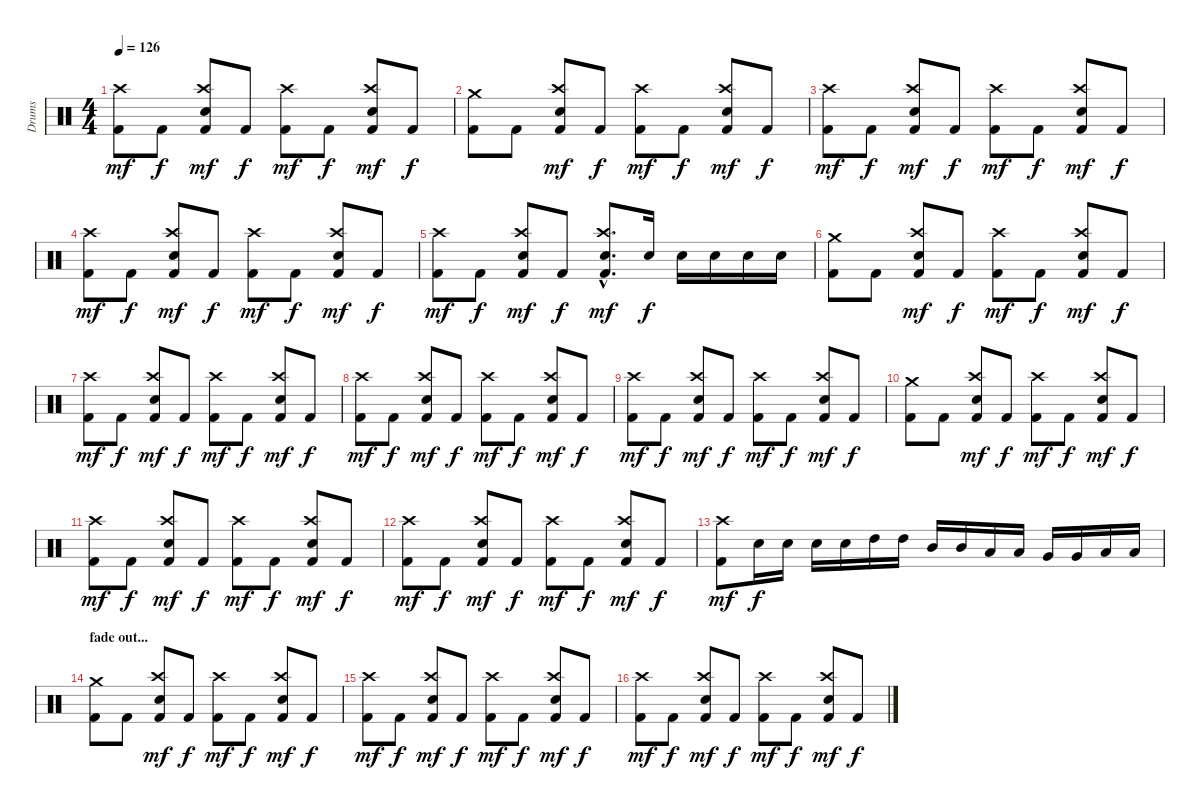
\track ("Drums" "Drums") {instrument percussion}
\staff {score}
\articulation defaults
\ts (4 4)
\tempo 126
\clef neutral
\ks c
("Kick (hit) 2" "Crash high (hit)").8{dy mf} "Kick (hit) 2".8{dy f} ("Kick (hit) 2" "Electric Snare (hit)" "Crash high (hit)").8{dy mf} "Kick (hit) 2".8{dy f} ("Kick (hit) 2" "Crash high (hit)").8{dy mf} "Kick (hit) 2".8{dy f} ("Kick (hit) 2" "Electric Snare (hit)" "Crash high (hit)").8{dy mf} "Kick (hit) 2".8{dy f} |
("Kick (hit) 2" "Crash medium (hit)").8 "Kick (hit) 2".8 ("Kick (hit) 2" "Electric Snare (hit)" "Crash high (hit)").8{dy mf} "Kick (hit) 2".8{dy f} ("Kick (hit) 2" "Crash high (hit)").8{dy mf} "Kick (hit) 2".8{dy f} ("Kick (hit) 2" "Electric Snare (hit)" "Crash high (hit)").8{dy mf} "Kick (hit) 2".8{dy f} |
("Kick (hit) 2" "Crash high (hit)").8{dy mf} "Kick (hit) 2".8{dy f} ("Kick (hit) 2" "Electric Snare (hit)" "Crash high (hit)").8{dy mf} "Kick (hit) 2".8{dy f} ("Kick (hit) 2" "Crash high (hit)").8{dy mf} "Kick (hit) 2".8{dy f} ("Kick (hit) 2" "Electric Snare (hit)" "Crash high (hit)").8{dy mf} "Kick (hit) 2".8{dy f} |
("Kick (hit) 2" "Crash high (hit)").8{dy mf} "Kick (hit) 2".8{dy f} ("Kick (hit) 2" "Electric Snare (hit)" "Crash high (hit)").8{dy mf} "Kick (hit) 2".8{dy f} ("Kick (hit) 2" "Crash high (hit)").8{dy mf} "Kick (hit) 2".8{dy f} ("Kick (hit) 2" "Electric Snare (hit)" "Crash high (hit)").8{dy mf} "Kick (hit) 2".8{dy f} |
("Kick (hit) 2" "Crash high (hit)").8{dy mf} "Kick (hit) 2".8{dy f} ("Kick (hit) 2" "Electric Snare (hit)" "Crash high (hit)").8{dy mf} "Kick (hit) 2".8{dy f} ("Kick (hit) 2"{hac} "Electric Snare (hit)"{hac} "Crash high (hit)"{hac}).8{d dy mf} "Electric Snare (hit)".16{dy f} "Electric Snare (hit)".16 "Electric Snare (hit)".16 "Electric Snare (hit)".16 "Electric Snare (hit)".16 |
("Kick (hit) 2" "Crash medium (hit)").8 "Kick (hit) 2".8 ("Kick (hit) 2" "Electric Snare (hit)" "Crash high (hit)").8{dy mf} "Kick (hit) 2".8{dy f} ("Kick (hit) 2" "Crash high (hit)").8{dy mf} "Kick (hit) 2".8{dy f} ("Kick (hit) 2" "Electric Snare (hit)" "Crash high (hit)").8{dy mf} "Kick (hit) 2".8{dy f} |
("Kick (hit) 2" "Crash high (hit)").8{dy mf} "Kick (hit) 2".8{dy f} ("Kick (hit) 2" "Electric Snare (hit)" "Crash high (hit)").8{dy mf} "Kick (hit) 2".8{dy f} ("Kick (hit) 2" "Crash high (hit)").8{dy mf} "Kick (hit) 2".8{dy f} ("Kick (hit) 2" "Electric Snare (hit)" "Crash high (hit)").8{dy mf} "Kick (hit) 2".8{dy f} |
("Kick (hit) 2" "Crash high (hit)").8{dy mf} "Kick (hit) 2".8{dy f} ("Kick (hit) 2" "Electric Snare (hit)" "Crash high (hit)").8{dy mf} "Kick (hit) 2".8{dy f} ("Kick (hit) 2" "Crash high (hit)").8{dy mf} "Kick (hit) 2".8{dy f} ("Kick (hit) 2" "Electric Snare (hit)" "Crash high (hit)").8{dy mf} "Kick (hit) 2".8{dy f} |
("Kick (hit) 2" "Crash high (hit)").8{dy mf} "Kick (hit) 2".8{dy f} ("Kick (hit) 2" "Electric Snare (hit)" "Crash high (hit)").8{dy mf} "Kick (hit) 2".8{dy f} ("Kick (hit) 2" "Crash high (hit)").8{dy mf} "Kick (hit) 2".8{dy f} ("Kick (hit) 2" "Electric Snare (hit)" "Crash high (hit)").8{dy mf} "Kick (hit) 2".8{dy f} |
("Kick (hit) 2" "Crash medium (hit)").8 "Kick (hit) 2".8 ("Kick (hit) 2" "Electric Snare (hit)" "Crash high (hit)").8{dy mf} "Kick (hit) 2".8{dy f} ("Kick (hit) 2" "Crash high (hit)").8{dy mf} "Kick (hit) 2".8{dy f} ("Kick (hit) 2" "Electric Snare (hit)" "Crash high (hit)").8{dy mf} "Kick (hit) 2".8{dy f} |
("Kick (hit) 2" "Crash high (hit)").8{dy mf} "Kick (hit) 2".8{dy f} ("Kick (hit) 2" "Electric Snare (hit)" "Crash high (hit)").8{dy mf} "Kick (hit) 2".8{dy f} ("Kick (hit) 2" "Crash high (hit)").8{dy mf} "Kick (hit) 2".8{dy f} ("Kick (hit) 2" "Electric Snare (hit)" "Crash high (hit)").8{dy mf} "Kick (hit) 2".8{dy f} |
("Kick (hit) 2" "Crash high (hit)").8{dy mf} "Kick (hit) 2".8{dy f} ("Kick (hit) 2" "Electric Snare (hit)" "Crash high (hit)").8{dy mf} "Kick (hit) 2".8{dy f} ("Kick (hit) 2" "Crash high (hit)").8{dy mf} "Kick (hit) 2".8{dy f} ("Kick (hit) 2" "Electric Snare (hit)" "Crash high (hit)").8{dy mf} "Kick (hit) 2".8{dy f} |
("Kick (hit) 2" "Crash high (hit)").8{dy mf} "Electric Snare (hit)".16{dy f} "Electric Snare (hit)".16 "Electric Snare (hit)".16 "Electric Snare (hit)".16 "High Tom (hit)".16 "High Tom (hit)".16 "Mid Tom (hit)".16 "Mid Tom (hit)".16 "Low Tom (hit)".16 "Low Tom (hit)".16 "Very Low Tom (hit)".16 "Very Low Tom (hit)".16 "Low Floor Tom (hit)".16 "Low Floor Tom (hit)".16 |
\section ("" "fade out...")
("Kick (hit) 2" "Crash medium (hit)").8 "Kick (hit) 2".8 ("Kick (hit) 2" "Electric Snare (hit)" "Crash high (hit)").8{dy mf} "Kick (hit) 2".8{dy f} ("Kick (hit) 2" "Crash high (hit)").8{dy mf} "Kick (hit) 2".8{dy f} ("Kick (hit) 2" "Electric Snare (hit)" "Crash high (hit)").8{dy mf} "Kick (hit) 2".8{dy f} |
("Kick (hit) 2" "Crash high (hit)").8{dy mf} "Kick (hit) 2".8{dy f} ("Kick (hit) 2" "Electric Snare (hit)" "Crash high (hit)").8{dy mf} "Kick (hit) 2".8{dy f} ("Kick (hit) 2" "Crash high (hit)").8{dy mf} "Kick (hit) 2".8{dy f} ("Kick (hit) 2" "Electric Snare (hit)" "Crash high (hit)").8{dy mf} "Kick (hit) 2".8{dy f} |
("Kick (hit) 2" "Crash high (hit)").8{dy mf} "Kick (hit) 2".8{dy f} ("Kick (hit) 2" "Electric Snare (hit)" "Crash high (hit)").8{dy mf} "Kick (hit) 2".8{dy f} ("Kick (hit) 2" "Crash high (hit)").8{dy mf} "Kick (hit) 2".8{dy f} ("Kick (hit) 2" "Electric Snare (hit)" "Crash high (hit)").8{dy mf} "Kick (hit) 2".8{dy f}
